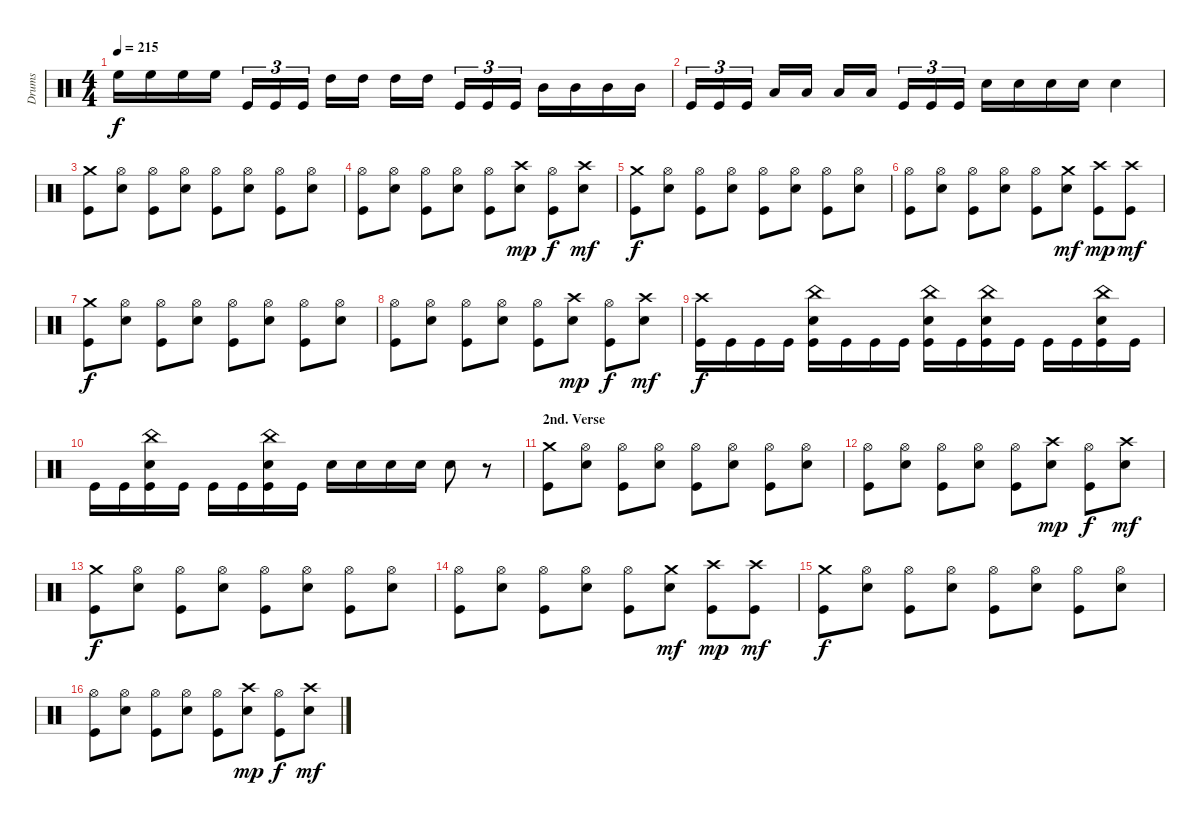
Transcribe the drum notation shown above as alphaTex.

\track ("Drums" "Drums") {instrument percussion}
\staff {score}
\articulation defaults
\ts (4 4)
\tempo 215
\clef neutral
\ks c "High Floor Tom (hit)".16{dy f} "High Floor Tom (hit)".16 "High Floor Tom (hit)".16 "High Floor Tom (hit)".16 "Kick (hit)".16{tu (3 2)} "Kick (hit)".16{tu (3 2)} "Kick (hit)".16{tu (3 2)} "High Tom (hit)".16 "High Tom (hit)".16 "High Tom (hit)".16 "High Tom (hit)".16 "Kick (hit)".16{tu (3 2)} "Kick (hit)".16{tu (3 2)} "Kick (hit)".16{tu (3 2)} "Mid Tom (hit)".16 "Mid Tom (hit)".16 "Mid Tom (hit)".16 "Mid Tom (hit)".16
|
"Kick (hit)".16{tu (3 2)} "Kick (hit)".16{tu (3 2)} "Kick (hit)".16{tu (3 2)} "Low Tom (hit)".16 "Low Tom (hit)".16 "Low Tom (hit)".16 "Low Tom (hit)".16 "Kick (hit)".16{tu (3 2)} "Kick (hit)".16{tu (3 2)} "Kick (hit)".16{tu (3 2)} "Electric Snare (hit)".16 "Electric Snare (hit)".16 "Electric Snare (hit)".16 "Electric Snare (hit)".16 "Electric Snare (hit)".4 |
("Crash medium (hit)" "Kick (hit)").8 ("Hi-Hat (open)" "Electric Snare (hit)").8 ("Hi-Hat (open)" "Kick (hit)").8 ("Hi-Hat (open)" "Electric Snare (hit)").8 ("Hi-Hat (open)" "Kick (hit)").8 ("Hi-Hat (open)" "Electric Snare (hit)").8 ("Hi-Hat (open)" "Kick (hit)").8 ("Hi-Hat (open)" "Electric Snare (hit)").8 |
("Hi-Hat (open)" "Kick (hit)").8 ("Hi-Hat (open)" "Electric Snare (hit)").8 ("Hi-Hat (open)" "Kick (hit)").8 ("Hi-Hat (open)" "Electric Snare (hit)").8 ("Hi-Hat (open)" "Kick (hit)").8 ("Crash high (hit)" "Electric Snare (hit)").8{dy mp} ("Hi-Hat (open)" "Kick (hit)").8{dy f} ("Crash high (hit)" "Electric Snare (hit)").8{dy mf} |
("Crash medium (hit)" "Kick (hit)").8{dy f} ("Hi-Hat (open)" "Electric Snare (hit)").8 ("Hi-Hat (open)" "Kick (hit)").8 ("Hi-Hat (open)" "Electric Snare (hit)").8 ("Hi-Hat (open)" "Kick (hit)").8 ("Hi-Hat (open)" "Electric Snare (hit)").8 ("Hi-Hat (open)" "Kick (hit)").8 ("Hi-Hat (open)" "Electric Snare (hit)").8 |
("Hi-Hat (open)" "Kick (hit)").8 ("Hi-Hat (open)" "Electric Snare (hit)").8 ("Hi-Hat (open)" "Kick (hit)").8 ("Hi-Hat (open)" "Electric Snare (hit)").8 ("Hi-Hat (open)" "Kick (hit)").8 ("Crash medium (hit)" "Electric Snare (hit)").8{dy mf} ("Crash high (hit)" "Kick (hit)").8{dy mp} ("Crash high (hit)" "Kick (hit)").8{dy mf} |
("Crash medium (hit)" "Kick (hit)").8{dy f} ("Hi-Hat (open)" "Electric Snare (hit)").8 ("Hi-Hat (open)" "Kick (hit)").8 ("Hi-Hat (open)" "Electric Snare (hit)").8 ("Hi-Hat (open)" "Kick (hit)").8 ("Hi-Hat (open)" "Electric Snare (hit)").8 ("Hi-Hat (open)" "Kick (hit)").8 ("Hi-Hat (open)" "Electric Snare (hit)").8 |
("Hi-Hat (open)" "Kick (hit)").8 ("Hi-Hat (open)" "Electric Snare (hit)").8 ("Hi-Hat (open)" "Kick (hit)").8 ("Hi-Hat (open)" "Electric Snare (hit)").8 ("Hi-Hat (open)" "Kick (hit)").8 ("Crash high (hit)" "Electric Snare (hit)").8{dy mp} ("Hi-Hat (open)" "Kick (hit)").8{dy f} ("Crash high (hit)" "Electric Snare (hit)").8{dy mf} |
("Crash high (hit)" "Kick (hit)").16{dy f} "Kick (hit)".16 "Kick (hit)".16 "Kick (hit)".16 ("China (hit)" "Electric Snare (hit)" "Kick (hit)").16 "Kick (hit)".16 "Kick (hit)".16 "Kick (hit)".16 ("China (hit)" "Electric Snare (hit)" "Kick (hit)").16 "Kick (hit)".16 ("China (hit)" "Electric Snare (hit)" "Kick (hit)").16 "Kick (hit)".16 "Kick (hit)".16 "Kick (hit)".16 ("China (hit)" "Electric Snare (hit)" "Kick (hit)").16 "Kick (hit)".16 |
"Kick (hit)".16 "Kick (hit)".16 ("China (hit)" "Electric Snare (hit)" "Kick (hit)").16 "Kick (hit)".16 "Kick (hit)".16 "Kick (hit)".16 ("China (hit)" "Electric Snare (hit)" "Kick (hit)").16 "Kick (hit)".16 "Electric Snare (hit)".16 "Electric Snare (hit)".16 "Electric Snare (hit)".16 "Electric Snare (hit)".16 "Electric Snare (hit)".8 r.8 |
\section ("" "2nd. Verse")
("Crash medium (hit)" "Kick (hit)").8 ("Hi-Hat (open)" "Electric Snare (hit)").8 ("Hi-Hat (open)" "Kick (hit)").8 ("Hi-Hat (open)" "Electric Snare (hit)").8 ("Hi-Hat (open)" "Kick (hit)").8 ("Hi-Hat (open)" "Electric Snare (hit)").8 ("Hi-Hat (open)" "Kick (hit)").8 ("Hi-Hat (open)" "Electric Snare (hit)").8 |
("Hi-Hat (open)" "Kick (hit)").8 ("Hi-Hat (open)" "Electric Snare (hit)").8 ("Hi-Hat (open)" "Kick (hit)").8 ("Hi-Hat (open)" "Electric Snare (hit)").8 ("Hi-Hat (open)" "Kick (hit)").8 ("Crash high (hit)" "Electric Snare (hit)").8{dy mp} ("Hi-Hat (open)" "Kick (hit)").8{dy f} ("Crash high (hit)" "Electric Snare (hit)").8{dy mf} |
("Crash medium (hit)" "Kick (hit)").8{dy f} ("Hi-Hat (open)" "Electric Snare (hit)").8 ("Hi-Hat (open)" "Kick (hit)").8 ("Hi-Hat (open)" "Electric Snare (hit)").8 ("Hi-Hat (open)" "Kick (hit)").8 ("Hi-Hat (open)" "Electric Snare (hit)").8 ("Hi-Hat (open)" "Kick (hit)").8 ("Hi-Hat (open)" "Electric Snare (hit)").8 |
("Hi-Hat (open)" "Kick (hit)").8 ("Hi-Hat (open)" "Electric Snare (hit)").8 ("Hi-Hat (open)" "Kick (hit)").8 ("Hi-Hat (open)" "Electric Snare (hit)").8 ("Hi-Hat (open)" "Kick (hit)").8 ("Crash medium (hit)" "Electric Snare (hit)").8{dy mf} ("Crash high (hit)" "Kick (hit)").8{dy mp} ("Crash high (hit)" "Kick (hit)").8{dy mf} |
("Crash medium (hit)" "Kick (hit)").8{dy f} ("Hi-Hat (open)" "Electric Snare (hit)").8 ("Hi-Hat (open)" "Kick (hit)").8 ("Hi-Hat (open)" "Electric Snare (hit)").8 ("Hi-Hat (open)" "Kick (hit)").8 ("Hi-Hat (open)" "Electric Snare (hit)").8 ("Hi-Hat (open)" "Kick (hit)").8 ("Hi-Hat (open)" "Electric Snare (hit)").8 |
("Hi-Hat (open)" "Kick (hit)").8 ("Hi-Hat (open)" "Electric Snare (hit)").8 ("Hi-Hat (open)" "Kick (hit)").8 ("Hi-Hat (open)" "Electric Snare (hit)").8 ("Hi-Hat (open)" "Kick (hit)").8 ("Crash high (hit)" "Electric Snare (hit)").8{dy mp} ("Hi-Hat (open)" "Kick (hit)").8{dy f} ("Crash high (hit)" "Electric Snare (hit)").8{dy mf}
